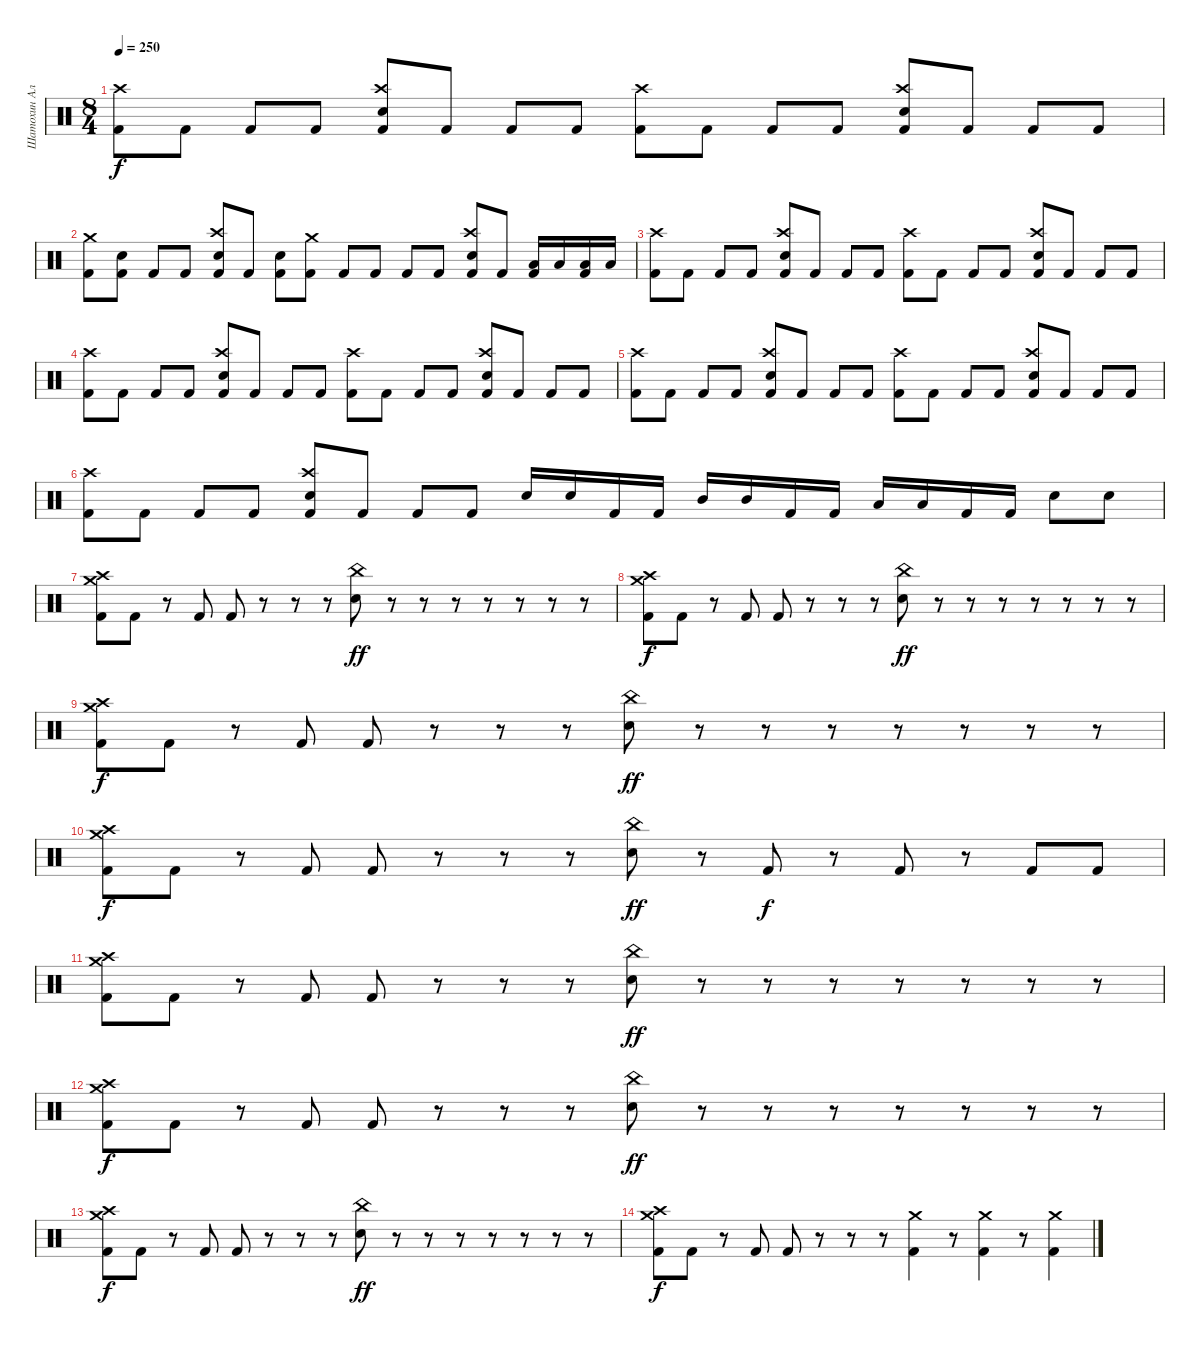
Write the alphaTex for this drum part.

\track ("Шатохин Алексей" "Шатохин Ал") {instrument percussion}
\staff {score}
\articulation defaults
\ts (8 4)
\tempo 250
\clef neutral
\ks c
("Kick (hit) 2" "Crash high (hit)").8{dy f} "Kick (hit) 2".8 "Kick (hit) 2".8 "Kick (hit) 2".8 ("Kick (hit) 2" "Electric Snare (hit)" "Crash high (hit)").8 "Kick (hit) 2".8 "Kick (hit) 2".8 "Kick (hit) 2".8 ("Kick (hit) 2" "Crash high (hit)").8 "Kick (hit) 2".8 "Kick (hit) 2".8 "Kick (hit) 2".8 ("Kick (hit) 2" "Electric Snare (hit)" "Crash high (hit)").8 "Kick (hit) 2".8 "Kick (hit) 2".8 "Kick (hit) 2".8 |
("Kick (hit) 2" "Crash medium (hit)").8 ("Kick (hit) 2" "Electric Snare (hit)").8 "Kick (hit) 2".8 "Kick (hit) 2".8 ("Kick (hit) 2" "Electric Snare (hit)" "Crash high (hit)").8 "Kick (hit) 2".8 ("Kick (hit) 2" "Electric Snare (hit)").8 ("Kick (hit) 2" "Crash medium (hit)").8 "Kick (hit) 2".8 "Kick (hit) 2".8 "Kick (hit) 2".8 "Kick (hit) 2".8 ("Kick (hit) 2" "Electric Snare (hit)" "Crash high (hit)").8 "Kick (hit) 2".8 ("Kick (hit) 2" "Low Floor Tom (hit)").16 "Low Floor Tom (hit)".16 ("Kick (hit) 2" "Low Floor Tom (hit)").16 "Low Floor Tom (hit)".16 |
("Kick (hit) 2" "Crash high (hit)").8 "Kick (hit) 2".8 "Kick (hit) 2".8 "Kick (hit) 2".8 ("Kick (hit) 2" "Electric Snare (hit)" "Crash high (hit)").8 "Kick (hit) 2".8 "Kick (hit) 2".8 "Kick (hit) 2".8 ("Kick (hit) 2" "Crash high (hit)").8 "Kick (hit) 2".8 "Kick (hit) 2".8 "Kick (hit) 2".8 ("Kick (hit) 2" "Electric Snare (hit)" "Crash high (hit)").8 "Kick (hit) 2".8 "Kick (hit) 2".8 "Kick (hit) 2".8 |
("Kick (hit) 2" "Crash high (hit)").8 "Kick (hit) 2".8 "Kick (hit) 2".8 "Kick (hit) 2".8 ("Kick (hit) 2" "Electric Snare (hit)" "Crash high (hit)").8 "Kick (hit) 2".8 "Kick (hit) 2".8 "Kick (hit) 2".8 ("Kick (hit) 2" "Crash high (hit)").8 "Kick (hit) 2".8 "Kick (hit) 2".8 "Kick (hit) 2".8 ("Kick (hit) 2" "Electric Snare (hit)" "Crash high (hit)").8 "Kick (hit) 2".8 "Kick (hit) 2".8 "Kick (hit) 2".8 |
("Kick (hit) 2" "Crash high (hit)").8 "Kick (hit) 2".8 "Kick (hit) 2".8 "Kick (hit) 2".8 ("Kick (hit) 2" "Electric Snare (hit)" "Crash high (hit)").8 "Kick (hit) 2".8 "Kick (hit) 2".8 "Kick (hit) 2".8 ("Kick (hit) 2" "Crash high (hit)").8 "Kick (hit) 2".8 "Kick (hit) 2".8 "Kick (hit) 2".8 ("Kick (hit) 2" "Electric Snare (hit)" "Crash high (hit)").8 "Kick (hit) 2".8 "Kick (hit) 2".8 "Kick (hit) 2".8 |
("Kick (hit) 2" "Crash high (hit)").8 "Kick (hit) 2".8 "Kick (hit) 2".8 "Kick (hit) 2".8 ("Kick (hit) 2" "Electric Snare (hit)" "Crash high (hit)").8 "Kick (hit) 2".8 "Kick (hit) 2".8 "Kick (hit) 2".8 "Electric Snare (hit)".16 "Electric Snare (hit)".16 "Kick (hit) 2".16 "Kick (hit) 2".16 "Mid Tom (hit)".16 "Mid Tom (hit)".16 "Kick (hit) 2".16 "Kick (hit) 2".16 "Low Tom (hit)".16 "Low Tom (hit)".16 "Kick (hit) 2".16 "Kick (hit) 2".16 "Electric Snare (hit)".8 "Electric Snare (hit)".8 |
("Kick (hit) 2" "Crash high (hit)" "Crash medium (hit)").8 "Kick (hit) 2".8 r.8 "Kick (hit) 2".8 "Kick (hit) 2".8 r.8 r.8 r.8 ("Electric Snare (hit)" "China (hit)").8{dy ff} r.8 r.8 r.8 r.8 r.8 r.8 r.8 |
("Kick (hit) 2" "Crash high (hit)" "Crash medium (hit)").8{dy f} "Kick (hit) 2".8 r.8 "Kick (hit) 2".8 "Kick (hit) 2".8 r.8 r.8 r.8 ("Electric Snare (hit)" "China (hit)").8{dy ff} r.8 r.8 r.8 r.8 r.8 r.8 r.8 |
("Kick (hit) 2" "Crash high (hit)" "Crash medium (hit)").8{dy f} "Kick (hit) 2".8 r.8 "Kick (hit) 2".8 "Kick (hit) 2".8 r.8 r.8 r.8 ("Electric Snare (hit)" "China (hit)").8{dy ff} r.8 r.8 r.8 r.8 r.8 r.8 r.8 |
("Kick (hit) 2" "Crash high (hit)" "Crash medium (hit)").8{dy f} "Kick (hit) 2".8 r.8 "Kick (hit) 2".8 "Kick (hit) 2".8 r.8 r.8 r.8 ("Electric Snare (hit)" "China (hit)").8{dy ff} r.8 "Kick (hit) 2".8{dy f} r.8 "Kick (hit) 2".8 r.8 "Kick (hit) 2".8 "Kick (hit) 2".8 |
("Kick (hit) 2" "Crash high (hit)" "Crash medium (hit)").8 "Kick (hit) 2".8 r.8 "Kick (hit) 2".8 "Kick (hit) 2".8 r.8 r.8 r.8 ("Electric Snare (hit)" "China (hit)").8{dy ff} r.8 r.8 r.8 r.8 r.8 r.8 r.8 |
("Kick (hit) 2" "Crash high (hit)" "Crash medium (hit)").8{dy f} "Kick (hit) 2".8 r.8 "Kick (hit) 2".8 "Kick (hit) 2".8 r.8 r.8 r.8 ("Electric Snare (hit)" "China (hit)").8{dy ff} r.8 r.8 r.8 r.8 r.8 r.8 r.8 |
("Kick (hit) 2" "Crash high (hit)" "Crash medium (hit)").8{dy f} "Kick (hit) 2".8 r.8 "Kick (hit) 2".8 "Kick (hit) 2".8 r.8 r.8 r.8 ("Electric Snare (hit)" "China (hit)").8{dy ff} r.8 r.8 r.8 r.8 r.8 r.8 r.8 |
("Kick (hit) 2" "Crash high (hit)" "Crash medium (hit)").8{dy f} "Kick (hit) 2".8 r.8 "Kick (hit) 2".8 "Kick (hit) 2".8 r.8 r.8 r.8 ("Kick (hit) 2" "Crash medium (hit)").4 r.8 ("Crash medium (hit)" "Kick (hit) 2").4 r.8 ("Crash medium (hit)" "Kick (hit) 2").4
